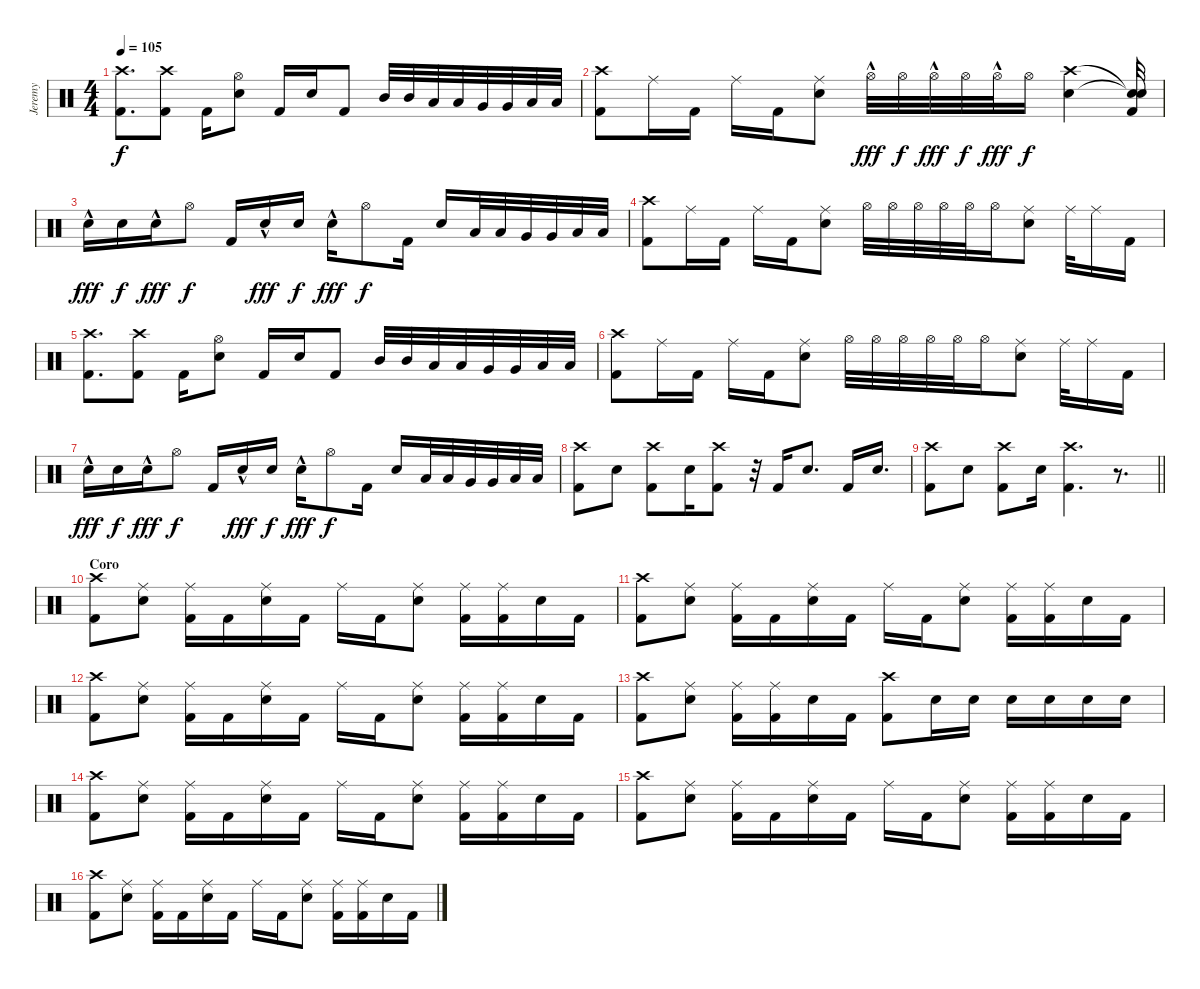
\track ("Jeremy" "Jeremy") {instrument percussion}
\staff {score}
\articulation defaults
\ts (4 4)
\tempo 105
\clef neutral
\ks c
("Crash high (hit)" "Kick (hit) 2").8{d dy f} ("Crash high (hit)" "Kick (hit) 2").8 "Kick (hit) 2".16 ("Hi-Hat (open)" "Snare (hit) 2").8 "Kick (hit) 2".16 "Snare (hit) 2".16 "Kick (hit) 2".8 "Mid Tom (hit)".32 "Mid Tom (hit)".32 "Low Tom (hit)".32 "Low Tom (hit)".32 "Very Low Tom (hit)".32 "Very Low Tom (hit)".32 "Low Floor Tom (hit)".32 "Low Floor Tom (hit)".32 |
("Crash high (hit)" "Kick (hit) 2").8 "Ride (middle)".16 "Kick (hit) 2".16 "Ride (middle)".16 "Kick (hit) 2".16 ("Ride (middle)" "Snare (hit) 2").8 "Hi-Hat (open)"{hac}.32{dy fff} "Hi-Hat (open)".32{dy f} "Hi-Hat (open)"{hac}.32{dy fff} "Hi-Hat (open)".32{dy f} "Hi-Hat (open)"{hac}.32{dy fff} "Hi-Hat (open)".16{dy f} ("Crash high (hit)" "Snare (hit) 2").4 ("Snare (hit)"{t} "Snare (hit)"{t} "Kick (hit) 2").32 |
"Snare (hit) 2"{hac}.16{dy fff} "Snare (hit) 2".16{dy f} "Snare (hit) 2"{hac}.16{dy fff} "Hi-Hat (open)".8{dy f} "Kick (hit) 2".16 "Snare (hit) 2"{hac}.16{dy fff} "Snare (hit) 2".16{dy f} "Snare (hit) 2"{hac}.16{dy fff} "Hi-Hat (open)".8{dy f} "Kick (hit) 2".16 "Snare (hit) 2".16 "Low Tom (hit)".32 "Low Tom (hit)".32 "Very Low Tom (hit)".32 "Very Low Tom (hit)".32 "Low Floor Tom (hit)".32 "Low Floor Tom (hit)".32 |
("Crash high (hit)" "Kick (hit) 2").8 "Ride (middle)".16 "Kick (hit) 2".16 "Ride (middle)".16 "Kick (hit) 2".16 ("Ride (middle)" "Snare (hit) 2").8 "Hi-Hat (open)".32 "Hi-Hat (open)".32 "Hi-Hat (open)".32 "Hi-Hat (open)".32 "Hi-Hat (open)".32 "Hi-Hat (open)".16 ("Ride (middle)" "Snare (hit) 2").8 "Ride (middle)".32 "Ride (middle)".16 "Kick (hit) 2".16 |
("Crash high (hit)" "Kick (hit) 2").8{d} ("Crash high (hit)" "Kick (hit) 2").8 "Kick (hit) 2".16 ("Hi-Hat (open)" "Snare (hit) 2").8 "Kick (hit) 2".16 "Snare (hit) 2".16 "Kick (hit) 2".8 "Mid Tom (hit)".32 "Mid Tom (hit)".32 "Low Tom (hit)".32 "Low Tom (hit)".32 "Very Low Tom (hit)".32 "Very Low Tom (hit)".32 "Low Floor Tom (hit)".32 "Low Floor Tom (hit)".32 |
("Crash high (hit)" "Kick (hit) 2").8 "Ride (middle)".16 "Kick (hit) 2".16 "Ride (middle)".16 "Kick (hit) 2".16 ("Ride (middle)" "Snare (hit) 2").8 "Hi-Hat (open)".32 "Hi-Hat (open)".32 "Hi-Hat (open)".32 "Hi-Hat (open)".32 "Hi-Hat (open)".32 "Hi-Hat (open)".16 ("Ride (middle)" "Snare (hit) 2").8 "Ride (middle)".32 "Ride (middle)".16 "Kick (hit) 2".16 |
"Snare (hit) 2"{hac}.16{dy fff} "Snare (hit) 2".16{dy f} "Snare (hit) 2"{hac}.16{dy fff} "Hi-Hat (open)".8{dy f} "Kick (hit) 2".16 "Snare (hit) 2"{hac}.16{dy fff} "Snare (hit) 2".16{dy f} "Snare (hit) 2"{hac}.16{dy fff} "Hi-Hat (open)".8{dy f} "Kick (hit) 2".16 "Snare (hit) 2".16 "Low Tom (hit)".32 "Low Tom (hit)".32 "Very Low Tom (hit)".32 "Very Low Tom (hit)".32 "Low Floor Tom (hit)".32 "Low Floor Tom (hit)".32 |
("Crash high (hit)" "Kick (hit) 2").8{volume 16} "Snare (hit) 2".8 ("Crash high (hit)" "Kick (hit) 2").8 "Snare (hit) 2".16 ("Crash high (hit)" "Kick (hit) 2").8 r.32 "Kick (hit) 2".16 "Snare (hit) 2".8{d} "Kick (hit) 2".16 "Snare (hit) 2".16{d} |
\barLineRight lightlight
("Crash high (hit)" "Kick (hit) 2").8 "Snare (hit) 2".8 ("Crash high (hit)" "Kick (hit) 2").8 "Snare (hit) 2".16 ("Crash high (hit)" "Kick (hit) 2").4{d} r.8{d} |
\section ("" "Coro")
("Crash high (hit)" "Kick (hit) 2").8 ("Ride (middle)" "Snare (hit) 2").8 ("Ride (middle)" "Kick (hit) 2").16 "Kick (hit) 2".16 ("Ride (middle)" "Snare (hit) 2").16 "Kick (hit) 2".16 "Ride (middle)".16 "Kick (hit) 2".16 ("Ride (middle)" "Snare (hit) 2").8 ("Ride (middle)" "Kick (hit) 2").16 ("Ride (middle)" "Kick (hit) 2").16 "Snare (hit) 2".16 "Kick (hit) 2".16 |
("Crash high (hit)" "Kick (hit) 2").8 ("Ride (middle)" "Snare (hit) 2").8 ("Ride (middle)" "Kick (hit) 2").16 "Kick (hit) 2".16 ("Ride (middle)" "Snare (hit) 2").16 "Kick (hit) 2".16 "Ride (middle)".16 "Kick (hit) 2".16 ("Ride (middle)" "Snare (hit) 2").8 ("Ride (middle)" "Kick (hit) 2").16 ("Ride (middle)" "Kick (hit) 2").16 "Snare (hit) 2".16 "Kick (hit) 2".16 |
("Crash high (hit)" "Kick (hit) 2").8 ("Ride (middle)" "Snare (hit) 2").8 ("Ride (middle)" "Kick (hit) 2").16 "Kick (hit) 2".16 ("Ride (middle)" "Snare (hit) 2").16 "Kick (hit) 2".16 "Ride (middle)".16 "Kick (hit) 2".16 ("Ride (middle)" "Snare (hit) 2").8 ("Ride (middle)" "Kick (hit) 2").16 ("Ride (middle)" "Kick (hit) 2").16 "Snare (hit) 2".16 "Kick (hit) 2".16 |
("Crash high (hit)" "Kick (hit) 2").8 ("Ride (middle)" "Snare (hit) 2").8 ("Ride (middle)" "Kick (hit) 2").16 ("Ride (middle)" "Kick (hit) 2").16 "Snare (hit) 2".16 "Kick (hit) 2".16 ("Crash high (hit)" "Kick (hit) 2").8 "Snare (hit) 2".16 "Snare (hit) 2".16 "Snare (hit) 2".16 "Snare (hit) 2".16 "Snare (hit) 2".16 "Snare (hit) 2".16 |
("Crash high (hit)" "Kick (hit) 2").8 ("Ride (middle)" "Snare (hit) 2").8 ("Ride (middle)" "Kick (hit) 2").16 "Kick (hit) 2".16 ("Ride (middle)" "Snare (hit) 2").16 "Kick (hit) 2".16 "Ride (middle)".16 "Kick (hit) 2".16 ("Ride (middle)" "Snare (hit) 2").8 ("Ride (middle)" "Kick (hit) 2").16 ("Ride (middle)" "Kick (hit) 2").16 "Snare (hit) 2".16 "Kick (hit) 2".16 |
("Crash high (hit)" "Kick (hit) 2").8 ("Ride (middle)" "Snare (hit) 2").8 ("Ride (middle)" "Kick (hit) 2").16 "Kick (hit) 2".16 ("Ride (middle)" "Snare (hit) 2").16 "Kick (hit) 2".16 "Ride (middle)".16 "Kick (hit) 2".16 ("Ride (middle)" "Snare (hit) 2").8 ("Ride (middle)" "Kick (hit) 2").16 ("Ride (middle)" "Kick (hit) 2").16 "Snare (hit) 2".16 "Kick (hit) 2".16 |
("Crash high (hit)" "Kick (hit) 2").8 ("Ride (middle)" "Snare (hit) 2").8 ("Ride (middle)" "Kick (hit) 2").16 "Kick (hit) 2".16 ("Ride (middle)" "Snare (hit) 2").16 "Kick (hit) 2".16 "Ride (middle)".16 "Kick (hit) 2".16 ("Ride (middle)" "Snare (hit) 2").8 ("Ride (middle)" "Kick (hit) 2").16 ("Ride (middle)" "Kick (hit) 2").16 "Snare (hit) 2".16 "Kick (hit) 2".16
